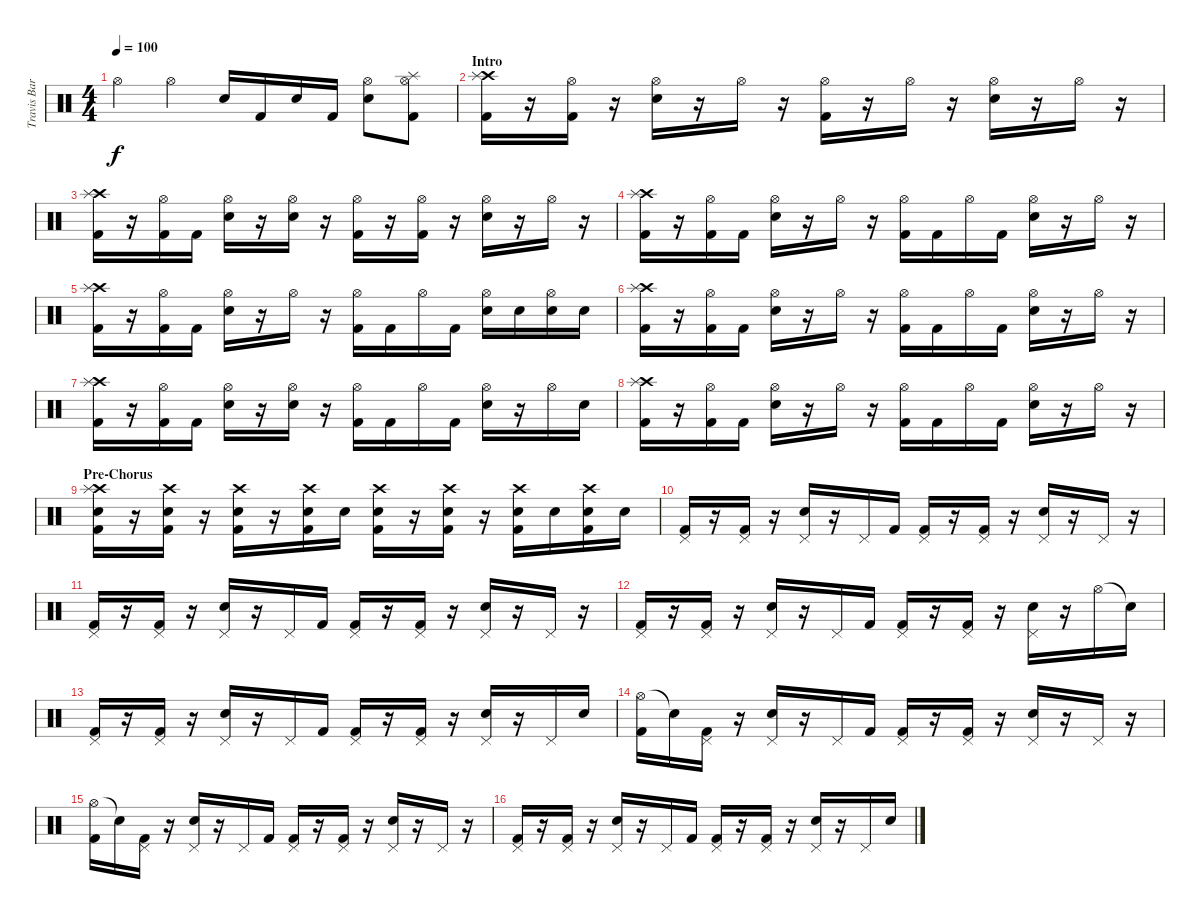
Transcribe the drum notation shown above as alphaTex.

\track ("Travis Barker (Schlagzeug)" "Travis Bar") {instrument percussion}
\staff {score}
\articulation defaults
\ts (4 4)
\tempo 100
\clef neutral
\ks c "Hi-Hat (open)".4{dy f} "Hi-Hat (open)".4 "Electric Snare (hit)".16 "Kick (hit) 2".16 "Electric Snare (hit)".16 "Kick (hit) 2".16
("Hi-Hat (open)" "Electric Snare (hit)").8 ("Hi-Hat (open)" "Splash (hit)" "Kick (hit) 2").8 |
\section ("" "Intro")
("Crash high (hit)" "Splash (hit)" "Kick (hit) 2").16 r.16 ("Hi-Hat (open)" "Kick (hit) 2").16 r.16 ("Hi-Hat (open)" "Electric Snare (hit)").16 r.16 "Hi-Hat (open)".16 r.16 ("Hi-Hat (open)" "Kick (hit) 2").16 r.16 "Hi-Hat (open)".16 r.16 ("Hi-Hat (open)" "Electric Snare (hit)").16 r.16 "Hi-Hat (open)".16 r.16 |
("Crash high (hit)" "Splash (hit)" "Kick (hit) 2").16 r.16 ("Hi-Hat (open)" "Kick (hit) 2").16 "Kick (hit) 2".16 ("Hi-Hat (open)" "Electric Snare (hit)").16 r.16 ("Hi-Hat (open)" "Electric Snare (hit)").16 r.16 ("Hi-Hat (open)" "Kick (hit) 2").16 r.16 ("Hi-Hat (open)" "Kick (hit) 2").16 r.16 ("Hi-Hat (open)" "Electric Snare (hit)").16 r.16 "Hi-Hat (open)".16 r.16 |
("Crash high (hit)" "Splash (hit)" "Kick (hit) 2").16 r.16 ("Hi-Hat (open)" "Kick (hit) 2").16 "Kick (hit) 2".16 ("Hi-Hat (open)" "Electric Snare (hit)").16 r.16 "Hi-Hat (open)".16 r.16 ("Hi-Hat (open)" "Kick (hit) 2").16 "Kick (hit) 2".16 "Hi-Hat (open)".16 "Kick (hit) 2".16 ("Hi-Hat (open)" "Electric Snare (hit)").16 r.16 "Hi-Hat (open)".16 r.16 |
("Crash high (hit)" "Splash (hit)" "Kick (hit) 2").16 r.16 ("Hi-Hat (open)" "Kick (hit) 2").16 "Kick (hit) 2".16 ("Hi-Hat (open)" "Electric Snare (hit)").16 r.16 "Hi-Hat (open)".16 r.16 ("Hi-Hat (open)" "Kick (hit) 2").16 "Kick (hit) 2".16 "Hi-Hat (open)".16 "Kick (hit) 2".16 ("Hi-Hat (open)" "Electric Snare (hit)").16 "Electric Snare (hit)".16 ("Hi-Hat (open)" "Electric Snare (hit)").16 "Electric Snare (hit)".16 |
("Crash high (hit)" "Splash (hit)" "Kick (hit) 2").16 r.16 ("Hi-Hat (open)" "Kick (hit) 2").16 "Kick (hit) 2".16 ("Hi-Hat (open)" "Electric Snare (hit)").16 r.16 "Hi-Hat (open)".16 r.16 ("Hi-Hat (open)" "Kick (hit) 2").16 "Kick (hit) 2".16 "Hi-Hat (open)".16 "Kick (hit) 2".16 ("Hi-Hat (open)" "Electric Snare (hit)").16 r.16 "Hi-Hat (open)".16 r.16 |
("Crash high (hit)" "Splash (hit)" "Kick (hit) 2").16 r.16 ("Hi-Hat (open)" "Kick (hit) 2").16 "Kick (hit) 2".16 ("Hi-Hat (open)" "Electric Snare (hit)").16 r.16 ("Hi-Hat (open)" "Electric Snare (hit)").16 r.16 ("Hi-Hat (open)" "Kick (hit) 2").16 "Kick (hit) 2".16 "Hi-Hat (open)".16 "Kick (hit) 2".16 ("Hi-Hat (open)" "Electric Snare (hit)").16 r.16 "Hi-Hat (open)".16 "Electric Snare (hit)".16 |
("Crash high (hit)" "Splash (hit)" "Kick (hit) 2").16 r.16 ("Hi-Hat (open)" "Kick (hit) 2").16 "Kick (hit) 2".16 ("Hi-Hat (open)" "Electric Snare (hit)").16 r.16 "Hi-Hat (open)".16 r.16 ("Hi-Hat (open)" "Kick (hit) 2").16 "Kick (hit) 2".16 "Hi-Hat (open)".16 "Kick (hit) 2".16 ("Hi-Hat (open)" "Electric Snare (hit)").16 r.16 "Hi-Hat (open)".16 r.16 |
\section ("" "Pre-Chorus")
("Crash high (hit)" "Splash (hit)" "Electric Snare (hit)" "Kick (hit) 2").16 r.16 ("Crash high (hit)" "Electric Snare (hit)" "Kick (hit) 2").16 r.16 ("Crash high (hit)" "Electric Snare (hit)" "Kick (hit) 2").16 r.16 ("Crash high (hit)" "Electric Snare (hit)" "Kick (hit) 2").16 "Electric Snare (hit)".16 ("Crash high (hit)" "Electric Snare (hit)" "Kick (hit) 2").16 r.16 ("Crash high (hit)" "Electric Snare (hit)" "Kick (hit) 2").16 r.16 ("Crash high (hit)" "Electric Snare (hit)" "Kick (hit) 2").16 "Electric Snare (hit)".16 ("Crash high (hit)" "Electric Snare (hit)" "Kick (hit) 2").16 "Electric Snare (hit)".16 |
("Pedal Hi-Hat (hit)" "Kick (hit) 2").16 r.16 ("Pedal Hi-Hat (hit)" "Kick (hit) 2").16 r.16 ("Pedal Hi-Hat (hit)" "Electric Snare (hit)").16 r.16 "Pedal Hi-Hat (hit)".16 "Kick (hit) 2".16 ("Pedal Hi-Hat (hit)" "Kick (hit) 2").16 r.16 ("Pedal Hi-Hat (hit)" "Kick (hit) 2").16 r.16 ("Pedal Hi-Hat (hit)" "Electric Snare (hit)").16 r.16 "Pedal Hi-Hat (hit)".16 r.16 |
("Pedal Hi-Hat (hit)" "Kick (hit) 2").16 r.16 ("Pedal Hi-Hat (hit)" "Kick (hit) 2").16 r.16 ("Pedal Hi-Hat (hit)" "Electric Snare (hit)").16 r.16 "Pedal Hi-Hat (hit)".16 "Kick (hit) 2".16 ("Pedal Hi-Hat (hit)" "Kick (hit) 2").16 r.16 ("Pedal Hi-Hat (hit)" "Kick (hit) 2").16 r.16 ("Pedal Hi-Hat (hit)" "Electric Snare (hit)").16 r.16 "Pedal Hi-Hat (hit)".16 r.16 |
("Pedal Hi-Hat (hit)" "Kick (hit) 2").16 r.16 ("Pedal Hi-Hat (hit)" "Kick (hit) 2").16 r.16 ("Pedal Hi-Hat (hit)" "Electric Snare (hit)").16 r.16 "Pedal Hi-Hat (hit)".16 "Kick (hit) 2".16 ("Pedal Hi-Hat (hit)" "Kick (hit) 2").16 r.16 ("Pedal Hi-Hat (hit)" "Kick (hit) 2").16 r.16 ("Pedal Hi-Hat (hit)" "Electric Snare (hit)").16 r.16 "Hi-Hat (open)".16 "Snare (hit)"{t}.16 |
("Pedal Hi-Hat (hit)" "Kick (hit) 2").16 r.16 ("Pedal Hi-Hat (hit)" "Kick (hit) 2").16 r.16 ("Pedal Hi-Hat (hit)" "Electric Snare (hit)").16 r.16 "Pedal Hi-Hat (hit)".16 "Kick (hit) 2".16 ("Pedal Hi-Hat (hit)" "Kick (hit) 2").16 r.16 ("Pedal Hi-Hat (hit)" "Kick (hit) 2").16 r.16 ("Pedal Hi-Hat (hit)" "Electric Snare (hit)").16 r.16 "Pedal Hi-Hat (hit)".16 "Electric Snare (hit)".16 |
("Hi-Hat (open)" "Kick (hit) 2").16 "Snare (hit)"{t}.16 ("Pedal Hi-Hat (hit)" "Kick (hit) 2").16 r.16 ("Pedal Hi-Hat (hit)" "Electric Snare (hit)").16 r.16 "Pedal Hi-Hat (hit)".16 "Kick (hit) 2".16 ("Pedal Hi-Hat (hit)" "Kick (hit) 2").16 r.16 ("Pedal Hi-Hat (hit)" "Kick (hit) 2").16 r.16 ("Pedal Hi-Hat (hit)" "Electric Snare (hit)").16 r.16 "Pedal Hi-Hat (hit)".16 r.16 |
("Hi-Hat (open)" "Kick (hit) 2").16 "Snare (hit)"{t}.16 ("Pedal Hi-Hat (hit)" "Kick (hit) 2").16 r.16 ("Pedal Hi-Hat (hit)" "Electric Snare (hit)").16 r.16 "Pedal Hi-Hat (hit)".16 "Kick (hit) 2".16 ("Pedal Hi-Hat (hit)" "Kick (hit) 2").16 r.16 ("Pedal Hi-Hat (hit)" "Kick (hit) 2").16 r.16 ("Pedal Hi-Hat (hit)" "Electric Snare (hit)").16 r.16 "Pedal Hi-Hat (hit)".16 r.16 |
("Pedal Hi-Hat (hit)" "Kick (hit) 2").16 r.16 ("Pedal Hi-Hat (hit)" "Kick (hit) 2").16 r.16 ("Pedal Hi-Hat (hit)" "Electric Snare (hit)").16 r.16 "Pedal Hi-Hat (hit)".16 "Kick (hit) 2".16 ("Pedal Hi-Hat (hit)" "Kick (hit) 2").16 r.16 ("Pedal Hi-Hat (hit)" "Kick (hit) 2").16 r.16 ("Pedal Hi-Hat (hit)" "Electric Snare (hit)").16 r.16 "Pedal Hi-Hat (hit)".16 "Electric Snare (hit)".16
